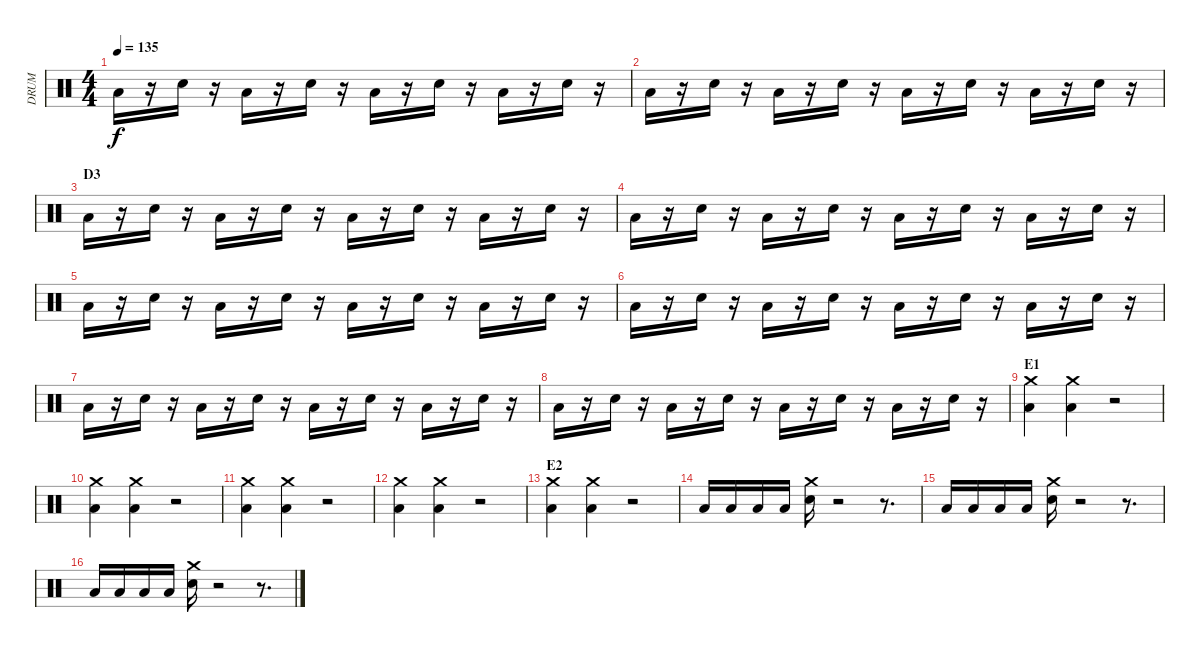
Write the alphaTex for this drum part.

\track ("DRUM" "DRUM") {instrument percussion}
\staff {score}
\articulation defaults
\ts (4 4)
\tempo 135
\clef neutral
\ks c "Low Floor Tom (hit)".16{dy f}
r.16 "Electric Snare (hit)".16 r.16 "Low Floor Tom (hit)".16 r.16 "Electric Snare (hit)".16 r.16 "Low Floor Tom (hit)".16 r.16 "Electric Snare (hit)".16 r.16 "Low Floor Tom (hit)".16 r.16 "Electric Snare (hit)".16 r.16 |
"Low Floor Tom (hit)".16 r.16 "Electric Snare (hit)".16 r.16 "Low Floor Tom (hit)".16 r.16 "Electric Snare (hit)".16 r.16 "Low Floor Tom (hit)".16 r.16 "Electric Snare (hit)".16 r.16 "Low Floor Tom (hit)".16 r.16 "Electric Snare (hit)".16 r.16 |
\section ("" "D3")
"Low Floor Tom (hit)".16 r.16 "Electric Snare (hit)".16 r.16 "Low Floor Tom (hit)".16 r.16 "Electric Snare (hit)".16 r.16 "Low Floor Tom (hit)".16 r.16 "Electric Snare (hit)".16 r.16 "Low Floor Tom (hit)".16 r.16 "Electric Snare (hit)".16 r.16 |
"Low Floor Tom (hit)".16 r.16 "Electric Snare (hit)".16 r.16 "Low Floor Tom (hit)".16 r.16 "Electric Snare (hit)".16 r.16 "Low Floor Tom (hit)".16 r.16 "Electric Snare (hit)".16 r.16 "Low Floor Tom (hit)".16 r.16 "Electric Snare (hit)".16 r.16 |
"Low Floor Tom (hit)".16 r.16 "Electric Snare (hit)".16 r.16 "Low Floor Tom (hit)".16 r.16 "Electric Snare (hit)".16 r.16 "Low Floor Tom (hit)".16 r.16 "Electric Snare (hit)".16 r.16 "Low Floor Tom (hit)".16 r.16 "Electric Snare (hit)".16 r.16 |
"Low Floor Tom (hit)".16 r.16 "Electric Snare (hit)".16 r.16 "Low Floor Tom (hit)".16 r.16 "Electric Snare (hit)".16 r.16 "Low Floor Tom (hit)".16 r.16 "Electric Snare (hit)".16 r.16 "Low Floor Tom (hit)".16 r.16 "Electric Snare (hit)".16 r.16 |
"Low Floor Tom (hit)".16 r.16 "Electric Snare (hit)".16 r.16 "Low Floor Tom (hit)".16 r.16 "Electric Snare (hit)".16 r.16 "Low Floor Tom (hit)".16 r.16 "Electric Snare (hit)".16 r.16 "Low Floor Tom (hit)".16 r.16 "Electric Snare (hit)".16 r.16 |
"Low Floor Tom (hit)".16 r.16 "Electric Snare (hit)".16 r.16 "Low Floor Tom (hit)".16 r.16 "Electric Snare (hit)".16 r.16 "Low Floor Tom (hit)".16 r.16 "Electric Snare (hit)".16 r.16 "Low Floor Tom (hit)".16 r.16 "Electric Snare (hit)".16 r.16 |
\section ("" "E1")
("Low Floor Tom (hit)" "Crash medium (hit)").4 ("Low Floor Tom (hit)" "Crash medium (hit)").4 r.2 |
("Low Floor Tom (hit)" "Crash medium (hit)").4 ("Low Floor Tom (hit)" "Crash medium (hit)").4 r.2 |
("Low Floor Tom (hit)" "Crash medium (hit)").4 ("Low Floor Tom (hit)" "Crash medium (hit)").4 r.2 |
("Low Floor Tom (hit)" "Crash medium (hit)").4 ("Low Floor Tom (hit)" "Crash medium (hit)").4 r.2 |
\section ("" "E2")
("Low Floor Tom (hit)" "Crash medium (hit)").4 ("Low Floor Tom (hit)" "Crash medium (hit)").4 r.2 |
"Low Floor Tom (hit)".16 "Low Floor Tom (hit)".16 "Low Floor Tom (hit)".16 "Low Floor Tom (hit)".16 ("Electric Snare (hit)" "Crash medium (hit)").16 r.2 r.8{d} |
"Low Floor Tom (hit)".16 "Low Floor Tom (hit)".16 "Low Floor Tom (hit)".16 "Low Floor Tom (hit)".16 ("Electric Snare (hit)" "Crash medium (hit)").16 r.2 r.8{d} |
"Low Floor Tom (hit)".16 "Low Floor Tom (hit)".16 "Low Floor Tom (hit)".16 "Low Floor Tom (hit)".16 ("Electric Snare (hit)" "Crash medium (hit)").16 r.2 r.8{d}
